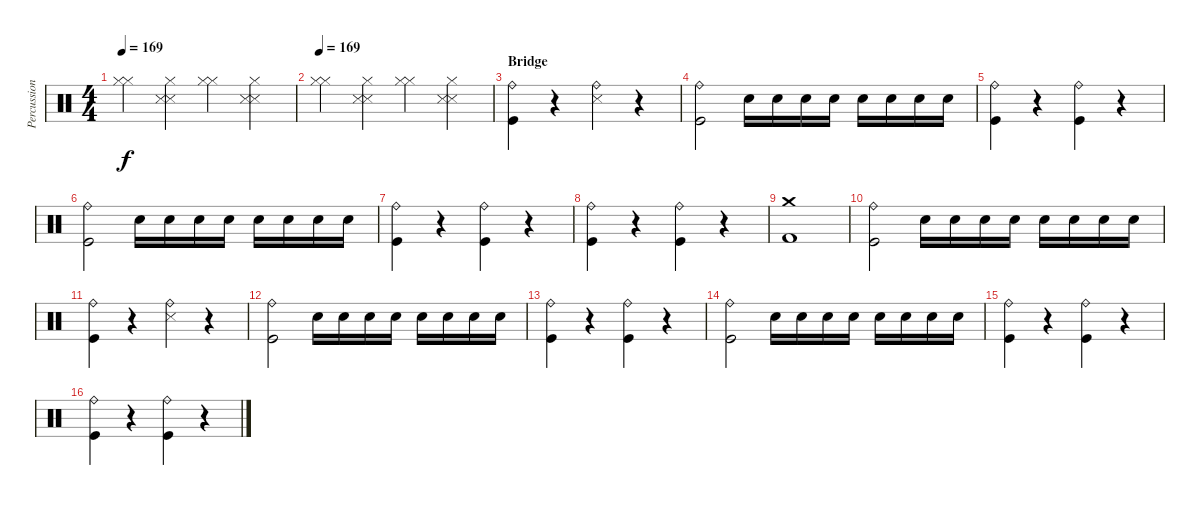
\track ("Percussion" "Percussion") {instrument percussion}
\staff {score}
\articulation defaults
\ts (4 4)
\tempo 169
\clef neutral
\ks c
("Hi-Hat (closed)" "Hi-Hat (closed)").4{dy f} ("Hi-Hat (closed)" "Snare (side stick) 3" "Snare (side stick) 3").4 ("Hi-Hat (closed)" "Hi-Hat (closed)").4 ("Hi-Hat (closed)" "Snare (side stick) 3" "Snare (side stick) 3").4 |
\tempo 169
("Hi-Hat (closed)" "Hi-Hat (closed)").4 ("Hi-Hat (closed)" "Snare (side stick) 3" "Snare (side stick) 3").4 ("Hi-Hat (closed)" "Hi-Hat (closed)").4 ("Hi-Hat (closed)" "Snare (side stick) 3" "Snare (side stick) 3").4 |
\section ("" "Bridge")
("Ride (bell)" "Kick (hit)").4 r.4 ("Ride (bell)" "Snare (side stick) 3").4 r.4 |
("Ride (bell)" "Kick (hit)").2 "Snare (hit) 2".16{volume 0} "Snare (hit) 2".16{volume 11} "Snare (hit) 2".16 "Snare (hit) 2".16 "Snare (hit) 2".16 "Snare (hit) 2".16 "Snare (hit) 2".16 "Snare (hit) 2".16 |
("Ride (bell)" "Kick (hit)").4 r.4 ("Ride (bell)" "Kick (hit)").4 r.4 |
("Ride (bell)" "Kick (hit)").2 "Snare (hit) 2".16{volume 0} "Snare (hit) 2".16{volume 11} "Snare (hit) 2".16 "Snare (hit) 2".16 "Snare (hit) 2".16 "Snare (hit) 2".16 "Snare (hit) 2".16 "Snare (hit) 2".16 |
("Ride (bell)" "Kick (hit)").4 r.4 ("Ride (bell)" "Kick (hit)").4 r.4 |
("Ride (bell)" "Kick (hit)").4 r.4 ("Ride (bell)" "Kick (hit)").4 r.4 |
("Crash medium (hit)" "Kick (hit) 2").1 |
("Ride (bell)" "Kick (hit)").2 "Snare (hit) 2".16{volume 0} "Snare (hit) 2".16{volume 11} "Snare (hit) 2".16 "Snare (hit) 2".16 "Snare (hit) 2".16 "Snare (hit) 2".16 "Snare (hit) 2".16 "Snare (hit) 2".16 |
("Ride (bell)" "Kick (hit)").4 r.4 ("Ride (bell)" "Snare (side stick) 3").4 r.4 |
("Ride (bell)" "Kick (hit)").2 "Snare (hit) 2".16{volume 0} "Snare (hit) 2".16{volume 11} "Snare (hit) 2".16 "Snare (hit) 2".16 "Snare (hit) 2".16 "Snare (hit) 2".16 "Snare (hit) 2".16 "Snare (hit) 2".16 |
("Ride (bell)" "Kick (hit)").4 r.4 ("Ride (bell)" "Kick (hit)").4 r.4 |
("Ride (bell)" "Kick (hit)").2 "Snare (hit) 2".16{volume 0} "Snare (hit) 2".16{volume 11} "Snare (hit) 2".16 "Snare (hit) 2".16 "Snare (hit) 2".16 "Snare (hit) 2".16 "Snare (hit) 2".16 "Snare (hit) 2".16 |
("Ride (bell)" "Kick (hit)").4 r.4 ("Ride (bell)" "Kick (hit)").4 r.4 |
("Ride (bell)" "Kick (hit)").4 r.4 ("Ride (bell)" "Kick (hit)").4 r.4
